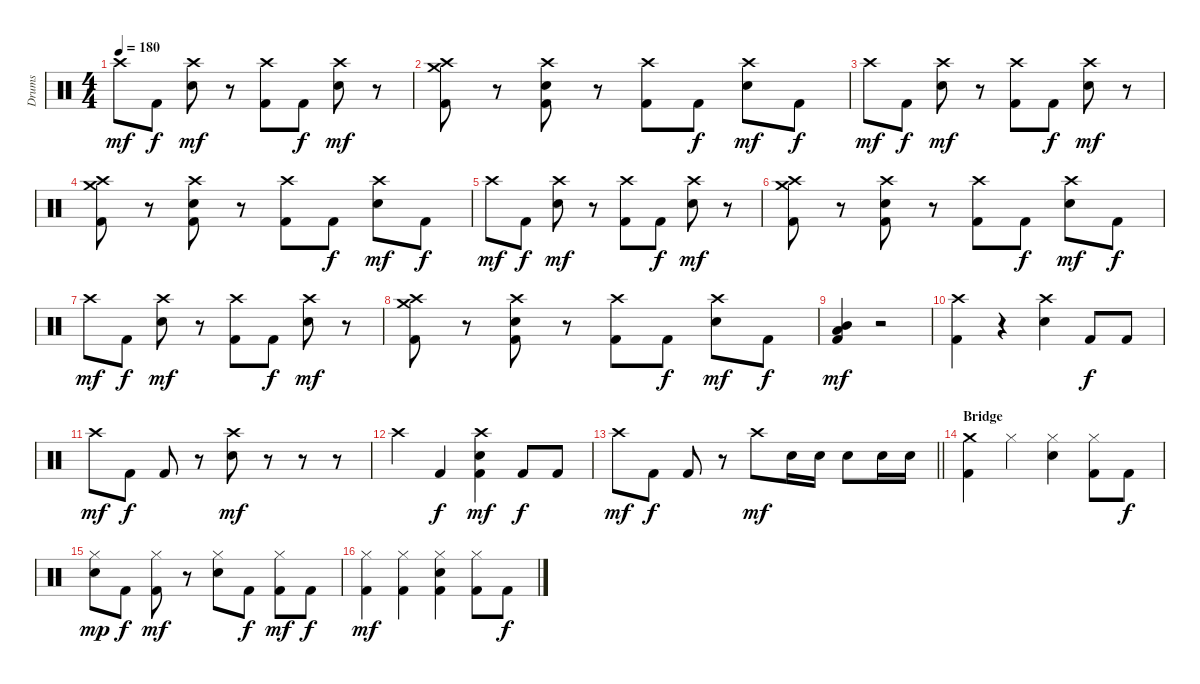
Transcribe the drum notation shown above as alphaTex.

\track ("Drums" "Drums") {instrument percussion}
\staff {score}
\articulation defaults
\ts (4 4)
\tempo 180
\clef neutral
\ks c "Crash high (hit)".8{dy mf} "Kick (hit) 2".8{dy f}
("Crash high (hit)" "Electric Snare (hit)").8{dy mf} r.8 ("Crash high (hit)" "Kick (hit) 2").8 "Kick (hit) 2".8{dy f} ("Crash high (hit)" "Electric Snare (hit)").8{dy mf} r.8 |
("Crash high (hit)" "Crash medium (hit)" "Kick (hit) 2").8 r.8 ("Crash high (hit)" "Electric Snare (hit)" "Kick (hit) 2").8 r.8 ("Crash high (hit)" "Kick (hit) 2").8 "Kick (hit) 2".8{dy f} ("Crash high (hit)" "Electric Snare (hit)").8{dy mf} "Kick (hit) 2".8{dy f} |
"Crash high (hit)".8{dy mf} "Kick (hit) 2".8{dy f} ("Crash high (hit)" "Electric Snare (hit)").8{dy mf} r.8 ("Crash high (hit)" "Kick (hit) 2").8 "Kick (hit) 2".8{dy f} ("Crash high (hit)" "Electric Snare (hit)").8{dy mf} r.8 |
("Crash high (hit)" "Crash medium (hit)" "Kick (hit) 2").8 r.8 ("Crash high (hit)" "Electric Snare (hit)" "Kick (hit) 2").8 r.8 ("Crash high (hit)" "Kick (hit) 2").8 "Kick (hit) 2".8{dy f} ("Crash high (hit)" "Electric Snare (hit)").8{dy mf} "Kick (hit) 2".8{dy f} |
"Crash high (hit)".8{dy mf} "Kick (hit) 2".8{dy f} ("Crash high (hit)" "Electric Snare (hit)").8{dy mf} r.8 ("Crash high (hit)" "Kick (hit) 2").8 "Kick (hit) 2".8{dy f} ("Crash high (hit)" "Electric Snare (hit)").8{dy mf} r.8 |
("Crash high (hit)" "Crash medium (hit)" "Kick (hit) 2").8 r.8 ("Crash high (hit)" "Electric Snare (hit)" "Kick (hit) 2").8 r.8 ("Crash high (hit)" "Kick (hit) 2").8 "Kick (hit) 2".8{dy f} ("Crash high (hit)" "Electric Snare (hit)").8{dy mf} "Kick (hit) 2".8{dy f} |
"Crash high (hit)".8{dy mf} "Kick (hit) 2".8{dy f} ("Crash high (hit)" "Electric Snare (hit)").8{dy mf} r.8 ("Crash high (hit)" "Kick (hit) 2").8 "Kick (hit) 2".8{dy f} ("Crash high (hit)" "Electric Snare (hit)").8{dy mf} r.8 |
("Crash high (hit)" "Crash medium (hit)" "Kick (hit) 2").8 r.8 ("Crash high (hit)" "Electric Snare (hit)" "Kick (hit) 2").8 r.8 ("Crash high (hit)" "Kick (hit) 2").8 "Kick (hit) 2".8{dy f} ("Crash high (hit)" "Electric Snare (hit)").8{dy mf} "Kick (hit) 2".8{dy f} |
("Low Tom (hit)" "Mid Tom (hit)" "Kick (hit) 2").4{dy mf} r.2 |
("Crash high (hit)" "Kick (hit) 2").4 r.4 ("Crash high (hit)" "Electric Snare (hit)").4 "Kick (hit) 2".8{dy f} "Kick (hit) 2".8 |
"Crash high (hit)".8{dy mf} "Kick (hit) 2".8{dy f} "Kick (hit) 2".8 r.8 ("Crash high (hit)" "Electric Snare (hit)").8{dy mf} r.8 r.8 r.8 |
"Crash high (hit)".4 "Kick (hit) 2".4{dy f} ("Crash high (hit)" "Electric Snare (hit)" "Kick (hit) 2").4{dy mf} "Kick (hit) 2".8{dy f} "Kick (hit) 2".8 |
\barLineRight lightlight "Crash high (hit)".8{dy mf} "Kick (hit) 2".8{dy f} "Kick (hit) 2".8
r.8 "Crash high (hit)".8{dy mf} "Electric Snare (hit)".16 "Electric Snare (hit)".16 "Electric Snare (hit)".8 "Electric Snare (hit)".16 "Electric Snare (hit)".16 |
\section ("" "Bridge")
("Crash medium (hit)" "Kick (hit) 2").4 "Hi-Hat (closed)".4 ("Hi-Hat (closed)" "Electric Snare (hit)").4 ("Hi-Hat (closed)" "Kick (hit) 2").8 "Kick (hit) 2".8{dy f} |
("Hi-Hat (closed)" "Electric Snare (hit)").8{dy mp} "Kick (hit) 2".8{dy f} ("Hi-Hat (closed)" "Kick (hit) 2").8{dy mf} r.8 ("Hi-Hat (closed)" "Electric Snare (hit)").8 "Kick (hit) 2".8{dy f} ("Hi-Hat (closed)" "Kick (hit) 2").8{dy mf} "Kick (hit) 2".8{dy f} |
("Hi-Hat (closed)" "Kick (hit) 2").4{dy mf} ("Hi-Hat (closed)" "Kick (hit) 2").4 ("Hi-Hat (closed)" "Electric Snare (hit)" "Kick (hit) 2").4 ("Hi-Hat (closed)" "Kick (hit) 2").8 "Kick (hit) 2".8{dy f}
